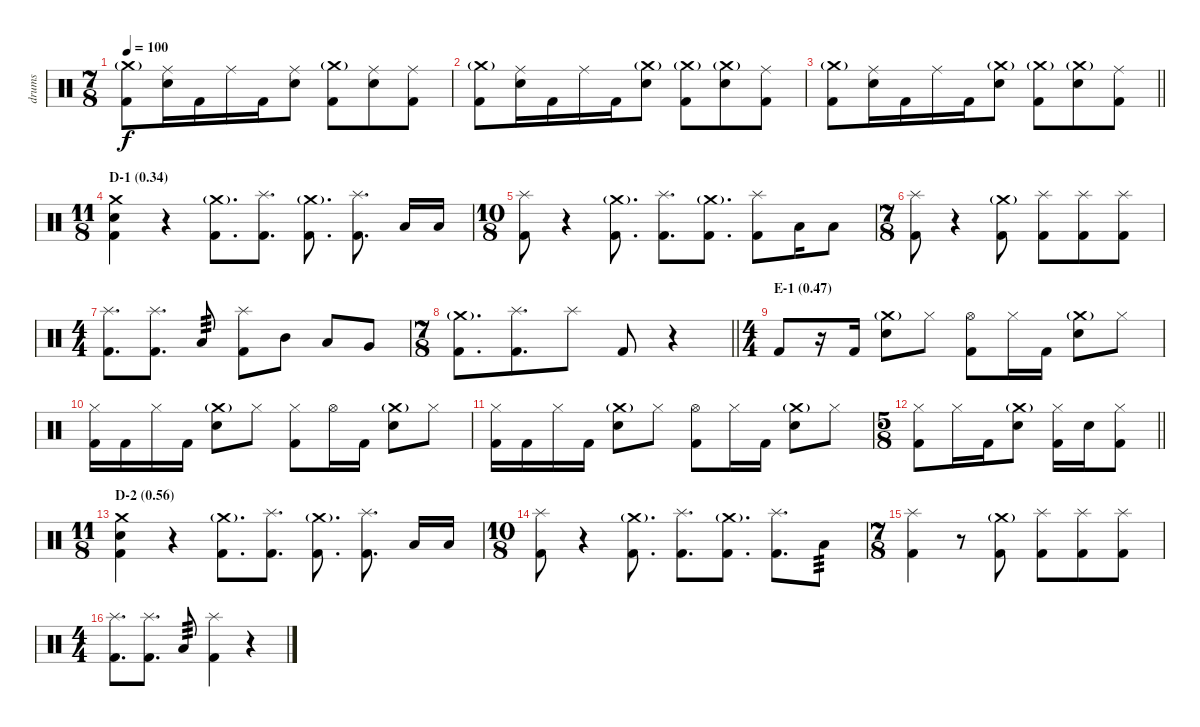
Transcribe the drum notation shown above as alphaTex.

\track ("drums" "drums") {instrument percussion}
\staff {score}
\articulation defaults
\ts (7 8)
\tempo 100
\clef neutral
\ks c
("Crash medium (hit)"{g} "Kick (hit) 2").8{dy f} ("Ride (middle)" "Electric Snare (hit)").16 "Kick (hit) 2".16 "Ride (middle)".16 "Kick (hit) 2".16 ("Ride (middle)" "Electric Snare (hit)").8 ("Crash medium (hit)"{g} "Kick (hit) 2").8 ("Ride (middle)" "Electric Snare (hit)").8 ("Ride (middle)" "Kick (hit) 2").8 |
("Crash medium (hit)"{g} "Kick (hit) 2").8 ("Ride (middle)" "Electric Snare (hit)").16 "Kick (hit) 2".16 "Ride (middle)".16 "Kick (hit) 2".16 ("Crash medium (hit)"{g} "Electric Snare (hit)").8 ("Crash medium (hit)"{g} "Kick (hit) 2").8 ("Crash medium (hit)"{g} "Electric Snare (hit)").8 ("Ride (middle)" "Kick (hit) 2").8 |
\barLineRight lightlight
("Crash medium (hit)"{g} "Kick (hit) 2").8 ("Ride (middle)" "Electric Snare (hit)").16 "Kick (hit) 2".16 "Ride (middle)".16 "Kick (hit) 2".16 ("Crash medium (hit)"{g} "Electric Snare (hit)").8 ("Crash medium (hit)"{g} "Kick (hit) 2").8 ("Crash medium (hit)"{g} "Electric Snare (hit)").8 ("Ride (middle)" "Kick (hit) 2").8 |
\ts (11 8)
\section ("" "D-1 (0.34)")
("Crash medium (hit)" "Electric Snare (hit)" "Kick (hit) 2").4 r.4 ("Crash medium (hit)"{g} "Kick (hit) 2").8{d} ("Splash (hit)" "Kick (hit) 2").8{d} ("Crash medium (hit)"{g} "Kick (hit) 2").8{d} ("Splash (hit)" "Kick (hit) 2").8{d} "Low Tom (hit)".16 "Low Tom (hit)".16 |
\ts (10 8)
("Splash (hit)" "Kick (hit) 2").8 r.4 ("Crash medium (hit)"{g} "Kick (hit) 2").8{d} ("Splash (hit)" "Kick (hit) 2").8{d} ("Crash medium (hit)"{g} "Kick (hit) 2").8{d} ("Splash (hit)" "Kick (hit) 2").8 "Low Tom (hit)".16 "Low Tom (hit)".8 |
\ts (7 8)
("Splash (hit)" "Kick (hit) 2").8 r.4 ("Crash medium (hit)"{g} "Kick (hit) 2").8 ("Splash (hit)" "Kick (hit) 2").8 ("Splash (hit)" "Kick (hit) 2").8 ("Splash (hit)" "Kick (hit) 2").8 |
\ts (4 4)
("Splash (hit)" "Kick (hit) 2").8{d} ("Splash (hit)" "Kick (hit) 2").8{d} "Low Tom (hit)".8{tp 3} ("Splash (hit)" "Kick (hit) 2").8 "Mid Tom (hit)".8 "Low Tom (hit)".8 "Very Low Tom (hit)".8 |
\ts (7 8)
\barLineRight lightlight
("Crash medium (hit)"{g} "Kick (hit) 2").8{d} ("Splash (hit)" "Kick (hit) 2").8{d} "Splash (hit)".8 "Kick (hit) 2".8 r.4 |
\ts (4 4)
\section ("" "E-1 (0.47)")
"Kick (hit) 2".8 r.16 "Kick (hit) 2".16 ("Crash medium (hit)"{g} "Electric Snare (hit)").8 "Hi-Hat (closed)".8 ("Hi-Hat (open)" "Kick (hit) 2").8 "Hi-Hat (closed)".16 "Kick (hit) 2".16 ("Crash medium (hit)"{g} "Electric Snare (hit)").8 "Hi-Hat (closed)".8 |
("Hi-Hat (closed)" "Kick (hit) 2").16 "Kick (hit) 2".16 "Hi-Hat (closed)".16 "Kick (hit) 2".16 ("Crash medium (hit)"{g} "Electric Snare (hit)").8 "Hi-Hat (closed)".8 ("Hi-Hat (closed)" "Kick (hit) 2").8 "Hi-Hat (open)".16 "Kick (hit) 2".16 ("Crash medium (hit)"{g} "Electric Snare (hit)").8 "Hi-Hat (closed)".8 |
("Hi-Hat (closed)" "Kick (hit) 2").16 "Kick (hit) 2".16 "Hi-Hat (closed)".16 "Kick (hit) 2".16 ("Crash medium (hit)"{g} "Electric Snare (hit)").8 "Hi-Hat (closed)".8 ("Hi-Hat (open)" "Kick (hit) 2").8 "Hi-Hat (closed)".16 "Kick (hit) 2".16 ("Crash medium (hit)"{g} "Electric Snare (hit)").8 "Hi-Hat (closed)".8 |
\ts (5 8)
\barLineRight lightlight
("Hi-Hat (closed)" "Kick (hit) 2").8 "Hi-Hat (closed)".16 "Kick (hit) 2".16 ("Crash medium (hit)"{g} "Electric Snare (hit)").8 ("Hi-Hat (closed)" "Kick (hit) 2").16 "Electric Snare (hit)".16 ("Hi-Hat (closed)" "Kick (hit) 2").8 |
\ts (11 8)
\section ("" "D-2 (0.56)")
("Crash medium (hit)" "Electric Snare (hit)" "Kick (hit) 2").4 r.4 ("Crash medium (hit)"{g} "Kick (hit) 2").8{d} ("Splash (hit)" "Kick (hit) 2").8{d} ("Crash medium (hit)"{g} "Kick (hit) 2").8{d} ("Splash (hit)" "Kick (hit) 2").8{d} "Low Tom (hit)".16 "Low Tom (hit)".16 |
\ts (10 8)
("Splash (hit)" "Kick (hit) 2").8 r.4 ("Crash medium (hit)"{g} "Kick (hit) 2").8{d} ("Splash (hit)" "Kick (hit) 2").8{d} ("Crash medium (hit)"{g} "Kick (hit) 2").8{d} ("Splash (hit)" "Kick (hit) 2").8{d} "Low Tom (hit)".8{tp 3} |
\ts (7 8)
("Splash (hit)" "Kick (hit) 2").4 r.8 ("Crash medium (hit)"{g} "Kick (hit) 2").8 ("Splash (hit)" "Kick (hit) 2").8 ("Splash (hit)" "Kick (hit) 2").8 ("Splash (hit)" "Kick (hit) 2").8 |
\ts (4 4)
("Splash (hit)" "Kick (hit) 2").8{d} ("Splash (hit)" "Kick (hit) 2").8{d} "Low Tom (hit)".8{tp 3} ("Splash (hit)" "Kick (hit) 2").4 r.4
